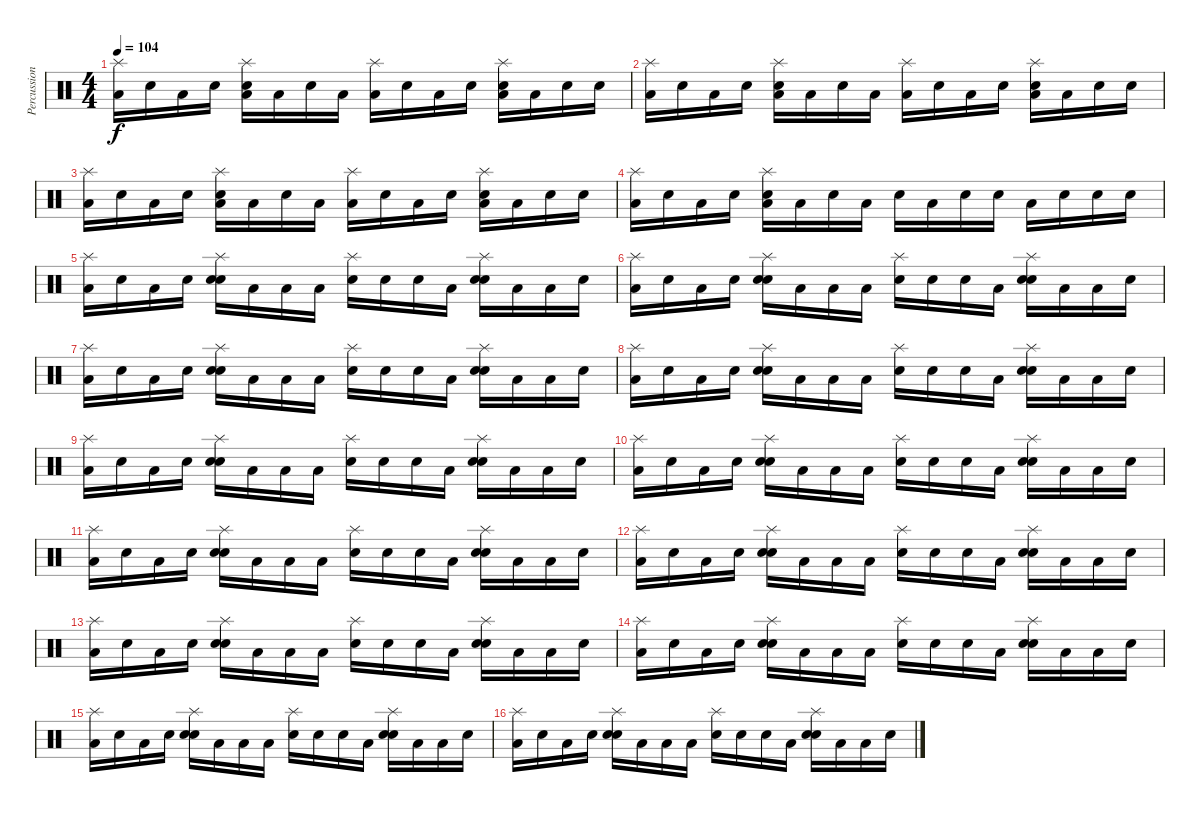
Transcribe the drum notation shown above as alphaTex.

\track ("Percussion" "Percussion") {instrument percussion}
\staff {score}
\articulation defaults
\ts (4 4)
\tempo 104
\clef neutral
\ks c
("Low Floor Tom (hit)" "Splash (hit)").16{dy f} "Snare (hit)".16 "Low Floor Tom (hit)".16 "Snare (hit)".16 ("Low Floor Tom (hit)" "Splash (hit)" "Snare (hit) 2").16 "Low Floor Tom (hit)".16 "Snare (hit)".16 "Low Floor Tom (hit)".16 ("Low Floor Tom (hit)" "Splash (hit)").16 "Snare (hit)".16 "Low Floor Tom (hit)".16 "Snare (hit)".16 ("Low Floor Tom (hit)" "Splash (hit)" "Snare (hit) 2").16 "Low Floor Tom (hit)".16 "Snare (hit)".16 "Snare (hit)".16 |
("Low Floor Tom (hit)" "Splash (hit)").16 "Snare (hit)".16 "Low Floor Tom (hit)".16 "Snare (hit)".16 ("Low Floor Tom (hit)" "Splash (hit)" "Snare (hit) 2").16 "Low Floor Tom (hit)".16 "Snare (hit)".16 "Low Floor Tom (hit)".16 ("Low Floor Tom (hit)" "Splash (hit)").16 "Snare (hit)".16 "Low Floor Tom (hit)".16 "Snare (hit)".16 ("Low Floor Tom (hit)" "Splash (hit)" "Snare (hit) 2").16 "Low Floor Tom (hit)".16 "Snare (hit)".16 "Snare (hit)".16 |
("Low Floor Tom (hit)" "Splash (hit)").16 "Snare (hit)".16 "Low Floor Tom (hit)".16 "Snare (hit)".16 ("Low Floor Tom (hit)" "Splash (hit)" "Snare (hit) 2").16 "Low Floor Tom (hit)".16 "Snare (hit)".16 "Low Floor Tom (hit)".16 ("Low Floor Tom (hit)" "Splash (hit)").16 "Snare (hit)".16 "Low Floor Tom (hit)".16 "Snare (hit)".16 ("Low Floor Tom (hit)" "Splash (hit)" "Snare (hit) 2").16 "Low Floor Tom (hit)".16 "Snare (hit)".16 "Snare (hit)".16 |
("Low Floor Tom (hit)" "Splash (hit)").16 "Snare (hit)".16 "Low Floor Tom (hit)".16 "Snare (hit)".16 ("Low Floor Tom (hit)" "Splash (hit)" "Snare (hit) 2").16 "Low Floor Tom (hit)".16 "Snare (hit)".16 "Low Floor Tom (hit)".16 "Snare (hit) 2".16 "Low Floor Tom (hit)".16 "Snare (hit) 2".16 "Snare (hit)".16 "Low Tom (hit)".16 "Snare (hit) 2".16 "Snare (hit) 2".16 "Snare (hit) 2".16 |
("Low Floor Tom (hit)" "Splash (hit)").16 "Snare (hit)".16 "Low Floor Tom (hit)".16 "Snare (hit)".16 ("Snare (hit)" "Splash (hit)" "Snare (hit) 2").16 "Low Floor Tom (hit)".16 "Low Floor Tom (hit)".16 "Low Floor Tom (hit)".16 ("Snare (hit)" "Splash (hit)").16 "Snare (hit)".16 "Snare (hit)".16 "Low Floor Tom (hit)".16 ("Snare (hit)" "Splash (hit)" "Snare (hit) 2").16 "Low Floor Tom (hit)".16 "Low Floor Tom (hit)".16 "Snare (hit)".16 |
("Low Floor Tom (hit)" "Splash (hit)").16 "Snare (hit)".16 "Low Floor Tom (hit)".16 "Snare (hit)".16 ("Snare (hit)" "Splash (hit)" "Snare (hit) 2").16 "Low Floor Tom (hit)".16 "Low Floor Tom (hit)".16 "Low Floor Tom (hit)".16 ("Snare (hit)" "Splash (hit)").16 "Snare (hit)".16 "Snare (hit)".16 "Low Floor Tom (hit)".16 ("Snare (hit)" "Splash (hit)" "Snare (hit) 2").16 "Low Floor Tom (hit)".16 "Low Floor Tom (hit)".16 "Snare (hit)".16 |
("Low Floor Tom (hit)" "Splash (hit)").16 "Snare (hit)".16 "Low Floor Tom (hit)".16 "Snare (hit)".16 ("Snare (hit)" "Splash (hit)" "Snare (hit) 2").16 "Low Floor Tom (hit)".16 "Low Floor Tom (hit)".16 "Low Floor Tom (hit)".16 ("Snare (hit)" "Splash (hit)").16 "Snare (hit)".16 "Snare (hit)".16 "Low Floor Tom (hit)".16 ("Snare (hit)" "Splash (hit)" "Snare (hit) 2").16 "Low Floor Tom (hit)".16 "Low Floor Tom (hit)".16 "Snare (hit)".16 |
("Low Floor Tom (hit)" "Splash (hit)").16 "Snare (hit)".16 "Low Floor Tom (hit)".16 "Snare (hit)".16 ("Snare (hit)" "Splash (hit)" "Snare (hit) 2").16 "Low Floor Tom (hit)".16 "Low Floor Tom (hit)".16 "Low Floor Tom (hit)".16 ("Snare (hit)" "Splash (hit)").16 "Snare (hit)".16 "Snare (hit)".16 "Low Floor Tom (hit)".16 ("Snare (hit)" "Splash (hit)" "Snare (hit) 2").16 "Low Floor Tom (hit)".16 "Low Floor Tom (hit)".16 "Snare (hit)".16 |
("Low Floor Tom (hit)" "Splash (hit)").16 "Snare (hit)".16 "Low Floor Tom (hit)".16 "Snare (hit)".16 ("Snare (hit)" "Splash (hit)" "Snare (hit) 2").16 "Low Floor Tom (hit)".16 "Low Floor Tom (hit)".16 "Low Floor Tom (hit)".16 ("Snare (hit)" "Splash (hit)").16 "Snare (hit)".16 "Snare (hit)".16 "Low Floor Tom (hit)".16 ("Snare (hit)" "Splash (hit)" "Snare (hit) 2").16 "Low Floor Tom (hit)".16 "Low Floor Tom (hit)".16 "Snare (hit)".16 |
("Low Floor Tom (hit)" "Splash (hit)").16 "Snare (hit)".16 "Low Floor Tom (hit)".16 "Snare (hit)".16 ("Snare (hit)" "Splash (hit)" "Snare (hit) 2").16 "Low Floor Tom (hit)".16 "Low Floor Tom (hit)".16 "Low Floor Tom (hit)".16 ("Snare (hit)" "Splash (hit)").16 "Snare (hit)".16 "Snare (hit)".16 "Low Floor Tom (hit)".16 ("Snare (hit)" "Splash (hit)" "Snare (hit) 2").16 "Low Floor Tom (hit)".16 "Low Floor Tom (hit)".16 "Snare (hit)".16 |
("Low Floor Tom (hit)" "Splash (hit)").16 "Snare (hit)".16 "Low Floor Tom (hit)".16 "Snare (hit)".16 ("Snare (hit)" "Splash (hit)" "Snare (hit) 2").16 "Low Floor Tom (hit)".16 "Low Floor Tom (hit)".16 "Low Floor Tom (hit)".16 ("Snare (hit)" "Splash (hit)").16 "Snare (hit)".16 "Snare (hit)".16 "Low Floor Tom (hit)".16 ("Snare (hit)" "Splash (hit)" "Snare (hit) 2").16 "Low Floor Tom (hit)".16 "Low Floor Tom (hit)".16 "Snare (hit)".16 |
("Low Floor Tom (hit)" "Splash (hit)").16 "Snare (hit)".16 "Low Floor Tom (hit)".16 "Snare (hit)".16 ("Snare (hit)" "Splash (hit)" "Snare (hit) 2").16 "Low Floor Tom (hit)".16 "Low Floor Tom (hit)".16 "Low Floor Tom (hit)".16 ("Snare (hit)" "Splash (hit)").16 "Snare (hit)".16 "Snare (hit)".16 "Low Floor Tom (hit)".16 ("Snare (hit)" "Splash (hit)" "Snare (hit) 2").16 "Low Floor Tom (hit)".16 "Low Floor Tom (hit)".16 "Snare (hit)".16 |
("Low Floor Tom (hit)" "Splash (hit)").16 "Snare (hit)".16 "Low Floor Tom (hit)".16 "Snare (hit)".16 ("Snare (hit)" "Splash (hit)" "Snare (hit) 2").16 "Low Floor Tom (hit)".16 "Low Floor Tom (hit)".16 "Low Floor Tom (hit)".16 ("Snare (hit)" "Splash (hit)").16 "Snare (hit)".16 "Snare (hit)".16 "Low Floor Tom (hit)".16 ("Snare (hit)" "Splash (hit)" "Snare (hit) 2").16 "Low Floor Tom (hit)".16 "Low Floor Tom (hit)".16 "Snare (hit)".16 |
("Low Floor Tom (hit)" "Splash (hit)").16 "Snare (hit)".16 "Low Floor Tom (hit)".16 "Snare (hit)".16 ("Snare (hit)" "Splash (hit)" "Snare (hit) 2").16 "Low Floor Tom (hit)".16 "Low Floor Tom (hit)".16 "Low Floor Tom (hit)".16 ("Snare (hit)" "Splash (hit)").16 "Snare (hit)".16 "Snare (hit)".16 "Low Floor Tom (hit)".16 ("Snare (hit)" "Splash (hit)" "Snare (hit) 2").16 "Low Floor Tom (hit)".16 "Low Floor Tom (hit)".16 "Snare (hit)".16 |
("Low Floor Tom (hit)" "Splash (hit)").16 "Snare (hit)".16 "Low Floor Tom (hit)".16 "Snare (hit)".16 ("Snare (hit)" "Splash (hit)" "Snare (hit) 2").16 "Low Floor Tom (hit)".16 "Low Floor Tom (hit)".16 "Low Floor Tom (hit)".16 ("Snare (hit)" "Splash (hit)").16 "Snare (hit)".16 "Snare (hit)".16 "Low Floor Tom (hit)".16 ("Snare (hit)" "Splash (hit)" "Snare (hit) 2").16 "Low Floor Tom (hit)".16 "Low Floor Tom (hit)".16 "Snare (hit)".16 |
("Low Floor Tom (hit)" "Splash (hit)").16 "Snare (hit)".16 "Low Floor Tom (hit)".16 "Snare (hit)".16 ("Snare (hit)" "Splash (hit)" "Snare (hit) 2").16 "Low Floor Tom (hit)".16 "Low Floor Tom (hit)".16 "Low Floor Tom (hit)".16 ("Snare (hit)" "Splash (hit)").16 "Snare (hit)".16 "Snare (hit)".16 "Low Floor Tom (hit)".16 ("Snare (hit)" "Splash (hit)" "Snare (hit) 2").16 "Low Floor Tom (hit)".16 "Low Floor Tom (hit)".16 "Snare (hit)".16
